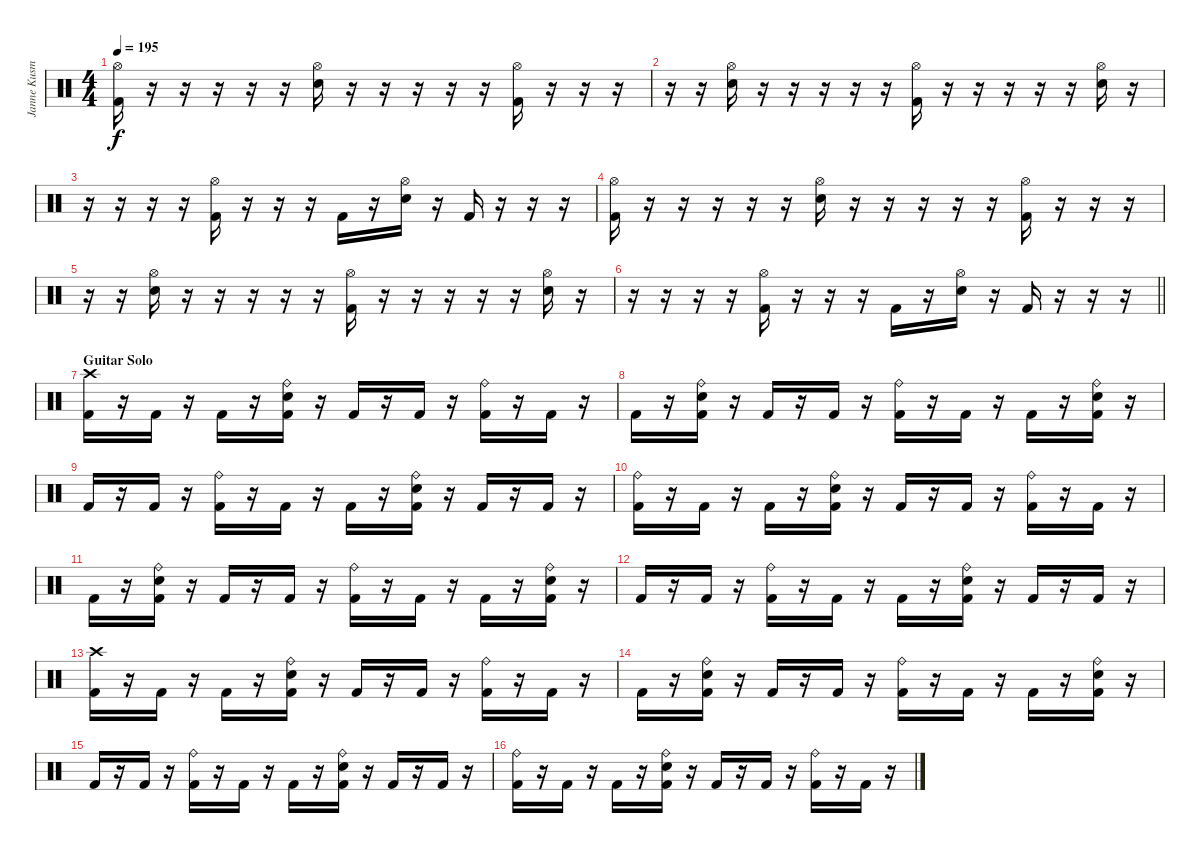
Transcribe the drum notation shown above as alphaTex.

\track ("Janne Kusmin" "Janne Kusm") {instrument percussion}
\staff {score}
\articulation defaults
\ts (4 4)
\tempo 195
\clef neutral
\ks c
("Hi-Hat (open)" "Kick (hit) 2").16{dy f} r.16 r.16 r.16 r.16 r.16 ("Hi-Hat (open)" "Snare (hit) 2").16 r.16 r.16 r.16 r.16 r.16 ("Hi-Hat (open)" "Kick (hit) 2").16 r.16 r.16 r.16 |
r.16 r.16 ("Hi-Hat (open)" "Snare (hit) 2").16 r.16 r.16 r.16 r.16 r.16 ("Hi-Hat (open)" "Kick (hit) 2").16 r.16 r.16 r.16 r.16 r.16 ("Hi-Hat (open)" "Snare (hit) 2").16 r.16 |
r.16 r.16 r.16 r.16 ("Hi-Hat (open)" "Kick (hit) 2").16 r.16 r.16 r.16 "Kick (hit) 2".16 r.16 ("Hi-Hat (open)" "Snare (hit) 2").16 r.16 "Kick (hit) 2".16 r.16 r.16 r.16 |
("Hi-Hat (open)" "Kick (hit) 2").16 r.16 r.16 r.16 r.16 r.16 ("Hi-Hat (open)" "Snare (hit) 2").16 r.16 r.16 r.16 r.16 r.16 ("Hi-Hat (open)" "Kick (hit) 2").16 r.16 r.16 r.16 |
r.16 r.16 ("Hi-Hat (open)" "Snare (hit) 2").16 r.16 r.16 r.16 r.16 r.16 ("Hi-Hat (open)" "Kick (hit) 2").16 r.16 r.16 r.16 r.16 r.16 ("Hi-Hat (open)" "Snare (hit) 2").16 r.16 |
\barLineRight lightlight
r.16 r.16 r.16 r.16 ("Hi-Hat (open)" "Kick (hit) 2").16 r.16 r.16 r.16 "Kick (hit) 2".16 r.16 ("Hi-Hat (open)" "Snare (hit) 2").16 r.16 "Kick (hit) 2".16 r.16 r.16 r.16 |
\section ("" "Guitar Solo")
("Crash high (hit)" "Kick (hit) 2").16 r.16 "Kick (hit) 2".16 r.16 "Kick (hit) 2".16 r.16 ("Ride (bell)" "Snare (hit) 2" "Kick (hit) 2").16 r.16 "Kick (hit) 2".16 r.16 "Kick (hit) 2".16 r.16 ("Ride (bell)" "Kick (hit) 2").16 r.16 "Kick (hit) 2".16 r.16 |
"Kick (hit) 2".16 r.16 ("Ride (bell)" "Snare (hit) 2" "Kick (hit) 2").16 r.16 "Kick (hit) 2".16 r.16 "Kick (hit) 2".16 r.16 ("Ride (bell)" "Kick (hit) 2").16 r.16 "Kick (hit) 2".16 r.16 "Kick (hit) 2".16 r.16 ("Ride (bell)" "Snare (hit) 2" "Kick (hit) 2").16 r.16 |
"Kick (hit) 2".16 r.16 "Kick (hit) 2".16 r.16 ("Ride (bell)" "Kick (hit) 2").16 r.16 "Kick (hit) 2".16 r.16 "Kick (hit) 2".16 r.16 ("Ride (bell)" "Snare (hit) 2" "Kick (hit) 2").16 r.16 "Kick (hit) 2".16 r.16 "Kick (hit) 2".16 r.16 |
("Ride (bell)" "Kick (hit) 2").16 r.16 "Kick (hit) 2".16 r.16 "Kick (hit) 2".16 r.16 ("Ride (bell)" "Snare (hit) 2" "Kick (hit) 2").16 r.16 "Kick (hit) 2".16 r.16 "Kick (hit) 2".16 r.16 ("Ride (bell)" "Kick (hit) 2").16 r.16 "Kick (hit) 2".16 r.16 |
"Kick (hit) 2".16 r.16 ("Ride (bell)" "Snare (hit) 2" "Kick (hit) 2").16 r.16 "Kick (hit) 2".16 r.16 "Kick (hit) 2".16 r.16 ("Ride (bell)" "Kick (hit) 2").16 r.16 "Kick (hit) 2".16 r.16 "Kick (hit) 2".16 r.16 ("Ride (bell)" "Snare (hit) 2" "Kick (hit) 2").16 r.16 |
"Kick (hit) 2".16 r.16 "Kick (hit) 2".16 r.16 ("Ride (bell)" "Kick (hit) 2").16 r.16 "Kick (hit) 2".16 r.16 "Kick (hit) 2".16 r.16 ("Ride (bell)" "Snare (hit) 2" "Kick (hit) 2").16 r.16 "Kick (hit) 2".16 r.16 "Kick (hit) 2".16 r.16 |
("Crash high (hit)" "Kick (hit) 2").16 r.16 "Kick (hit) 2".16 r.16 "Kick (hit) 2".16 r.16 ("Ride (bell)" "Snare (hit) 2" "Kick (hit) 2").16 r.16 "Kick (hit) 2".16 r.16 "Kick (hit) 2".16 r.16 ("Ride (bell)" "Kick (hit) 2").16 r.16 "Kick (hit) 2".16 r.16 |
"Kick (hit) 2".16 r.16 ("Ride (bell)" "Snare (hit) 2" "Kick (hit) 2").16 r.16 "Kick (hit) 2".16 r.16 "Kick (hit) 2".16 r.16 ("Ride (bell)" "Kick (hit) 2").16 r.16 "Kick (hit) 2".16 r.16 "Kick (hit) 2".16 r.16 ("Ride (bell)" "Snare (hit) 2" "Kick (hit) 2").16 r.16 |
"Kick (hit) 2".16 r.16 "Kick (hit) 2".16 r.16 ("Ride (bell)" "Kick (hit) 2").16 r.16 "Kick (hit) 2".16 r.16 "Kick (hit) 2".16 r.16 ("Ride (bell)" "Snare (hit) 2" "Kick (hit) 2").16 r.16 "Kick (hit) 2".16 r.16 "Kick (hit) 2".16 r.16 |
("Ride (bell)" "Kick (hit) 2").16 r.16 "Kick (hit) 2".16 r.16 "Kick (hit) 2".16 r.16 ("Ride (bell)" "Snare (hit) 2" "Kick (hit) 2").16 r.16 "Kick (hit) 2".16 r.16 "Kick (hit) 2".16 r.16 ("Ride (bell)" "Kick (hit) 2").16 r.16 "Kick (hit) 2".16 r.16
